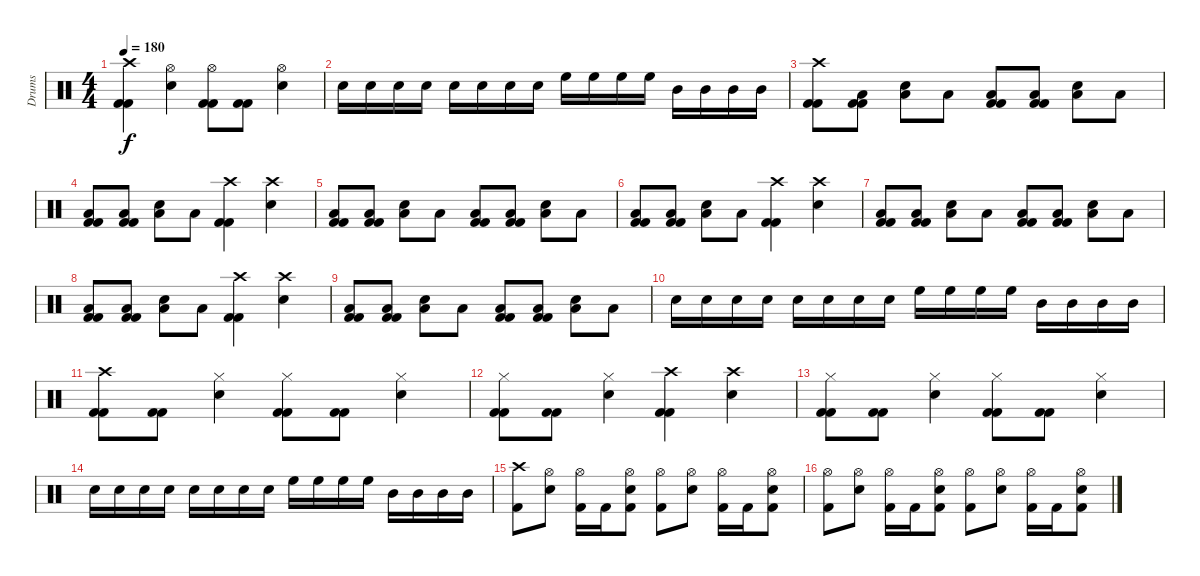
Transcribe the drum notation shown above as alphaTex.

\track ("Drums" "Drums") {instrument percussion}
\staff {score}
\articulation defaults
\ts (4 4)
\tempo 180
\clef neutral
\ks c
("Crash high (hit)" "Kick (hit) 2" "Kick (hit) 2").4{dy f} ("Hi-Hat (open)" "Snare (hit) 2").4 ("Hi-Hat (open)" "Kick (hit) 2" "Kick (hit) 2").8 ("Kick (hit) 2" "Kick (hit) 2").8 ("Hi-Hat (open)" "Snare (hit) 2").4 |
"Snare (hit) 2".16 "Snare (hit) 2".16 "Snare (hit) 2".16 "Snare (hit) 2".16 "Snare (hit) 2".16 "Snare (hit) 2".16 "Snare (hit) 2".16 "Snare (hit) 2".16 "High Floor Tom (hit)".16 "High Floor Tom (hit)".16 "High Floor Tom (hit)".16 "High Floor Tom (hit)".16 "Mid Tom (hit)".16 "Mid Tom (hit)".16 "Mid Tom (hit)".16 "Mid Tom (hit)".16 |
("Crash high (hit)" "Kick (hit) 2" "Kick (hit) 2").8 ("Low Tom (hit)" "Kick (hit) 2" "Kick (hit) 2").8 ("Low Tom (hit)" "Snare (hit) 2").8 "Low Tom (hit)".8 ("Low Tom (hit)" "Kick (hit) 2" "Kick (hit) 2").8 ("Low Tom (hit)" "Kick (hit) 2" "Kick (hit) 2").8 ("Low Tom (hit)" "Snare (hit) 2").8 "Low Tom (hit)".8 |
("Low Tom (hit)" "Kick (hit) 2" "Kick (hit) 2").8 ("Low Tom (hit)" "Kick (hit) 2" "Kick (hit) 2").8 ("Low Tom (hit)" "Snare (hit) 2").8 "Low Tom (hit)".8 ("Crash high (hit)" "Kick (hit) 2" "Kick (hit) 2").4 ("Crash high (hit)" "Snare (hit) 2").4 |
("Low Tom (hit)" "Kick (hit) 2" "Kick (hit) 2").8 ("Low Tom (hit)" "Kick (hit) 2" "Kick (hit) 2").8 ("Low Tom (hit)" "Snare (hit) 2").8 "Low Tom (hit)".8 ("Low Tom (hit)" "Kick (hit) 2" "Kick (hit) 2").8 ("Low Tom (hit)" "Kick (hit) 2" "Kick (hit) 2").8 ("Low Tom (hit)" "Snare (hit) 2").8 "Low Tom (hit)".8 |
("Low Tom (hit)" "Kick (hit) 2" "Kick (hit) 2").8 ("Low Tom (hit)" "Kick (hit) 2" "Kick (hit) 2").8 ("Low Tom (hit)" "Snare (hit) 2").8 "Low Tom (hit)".8 ("Crash high (hit)" "Kick (hit) 2" "Kick (hit) 2").4 ("Crash high (hit)" "Snare (hit) 2").4 |
("Low Tom (hit)" "Kick (hit) 2" "Kick (hit) 2").8 ("Low Tom (hit)" "Kick (hit) 2" "Kick (hit) 2").8 ("Low Tom (hit)" "Snare (hit) 2").8 "Low Tom (hit)".8 ("Low Tom (hit)" "Kick (hit) 2" "Kick (hit) 2").8 ("Low Tom (hit)" "Kick (hit) 2" "Kick (hit) 2").8 ("Low Tom (hit)" "Snare (hit) 2").8 "Low Tom (hit)".8 |
("Low Tom (hit)" "Kick (hit) 2" "Kick (hit) 2").8 ("Low Tom (hit)" "Kick (hit) 2" "Kick (hit) 2").8 ("Low Tom (hit)" "Snare (hit) 2").8 "Low Tom (hit)".8 ("Crash high (hit)" "Kick (hit) 2" "Kick (hit) 2").4 ("Crash high (hit)" "Snare (hit) 2").4 |
("Low Tom (hit)" "Kick (hit) 2" "Kick (hit) 2").8 ("Low Tom (hit)" "Kick (hit) 2" "Kick (hit) 2").8 ("Low Tom (hit)" "Snare (hit) 2").8 "Low Tom (hit)".8 ("Low Tom (hit)" "Kick (hit) 2" "Kick (hit) 2").8 ("Low Tom (hit)" "Kick (hit) 2" "Kick (hit) 2").8 ("Low Tom (hit)" "Snare (hit) 2").8 "Low Tom (hit)".8 |
"Snare (hit) 2".16 "Snare (hit) 2".16 "Snare (hit) 2".16 "Snare (hit) 2".16 "Snare (hit) 2".16 "Snare (hit) 2".16 "Snare (hit) 2".16 "Snare (hit) 2".16 "High Floor Tom (hit)".16 "High Floor Tom (hit)".16 "High Floor Tom (hit)".16 "High Floor Tom (hit)".16 "Mid Tom (hit)".16 "Mid Tom (hit)".16 "Mid Tom (hit)".16 "Mid Tom (hit)".16 |
("Crash high (hit)" "Kick (hit) 2" "Kick (hit) 2").8 ("Kick (hit) 2" "Kick (hit) 2").8 ("Hi-Hat (closed)" "Snare (hit) 2").4 ("Hi-Hat (closed)" "Kick (hit) 2" "Kick (hit) 2").8 ("Kick (hit) 2" "Kick (hit) 2").8 ("Hi-Hat (closed)" "Snare (hit) 2").4 |
("Hi-Hat (closed)" "Kick (hit) 2" "Kick (hit) 2").8 ("Kick (hit) 2" "Kick (hit) 2").8 ("Hi-Hat (closed)" "Snare (hit) 2").4 ("Crash high (hit)" "Kick (hit) 2" "Kick (hit) 2").4 ("Crash high (hit)" "Snare (hit) 2").4 |
("Hi-Hat (closed)" "Kick (hit) 2" "Kick (hit) 2").8 ("Kick (hit) 2" "Kick (hit) 2").8 ("Hi-Hat (closed)" "Snare (hit) 2").4 ("Hi-Hat (closed)" "Kick (hit) 2" "Kick (hit) 2").8 ("Kick (hit) 2" "Kick (hit) 2").8 ("Hi-Hat (closed)" "Snare (hit) 2").4 |
"Snare (hit) 2".16 "Snare (hit) 2".16 "Snare (hit) 2".16 "Snare (hit) 2".16 "Snare (hit) 2".16 "Snare (hit) 2".16 "Snare (hit) 2".16 "Snare (hit) 2".16 "High Floor Tom (hit)".16 "High Floor Tom (hit)".16 "High Floor Tom (hit)".16 "High Floor Tom (hit)".16 "Mid Tom (hit)".16 "Mid Tom (hit)".16 "Mid Tom (hit)".16 "Mid Tom (hit)".16 |
("Crash high (hit)" "Kick (hit) 2").8 ("Hi-Hat (open)" "Snare (hit) 2").8 ("Hi-Hat (open)" "Kick (hit) 2").16 "Kick (hit) 2".16 ("Hi-Hat (open)" "Snare (hit) 2" "Kick (hit) 2").8 ("Hi-Hat (open)" "Kick (hit) 2").8 ("Hi-Hat (open)" "Snare (hit) 2").8 ("Hi-Hat (open)" "Kick (hit) 2").16 "Kick (hit) 2".16 ("Hi-Hat (open)" "Snare (hit) 2" "Kick (hit) 2").8 |
("Hi-Hat (open)" "Kick (hit) 2").8 ("Hi-Hat (open)" "Snare (hit) 2").8 ("Hi-Hat (open)" "Kick (hit) 2").16 "Kick (hit) 2".16 ("Hi-Hat (open)" "Snare (hit) 2" "Kick (hit) 2").8 ("Hi-Hat (open)" "Kick (hit) 2").8 ("Hi-Hat (open)" "Snare (hit) 2").8 ("Hi-Hat (open)" "Kick (hit) 2").16 "Kick (hit) 2".16 ("Hi-Hat (open)" "Snare (hit) 2" "Kick (hit) 2").8
